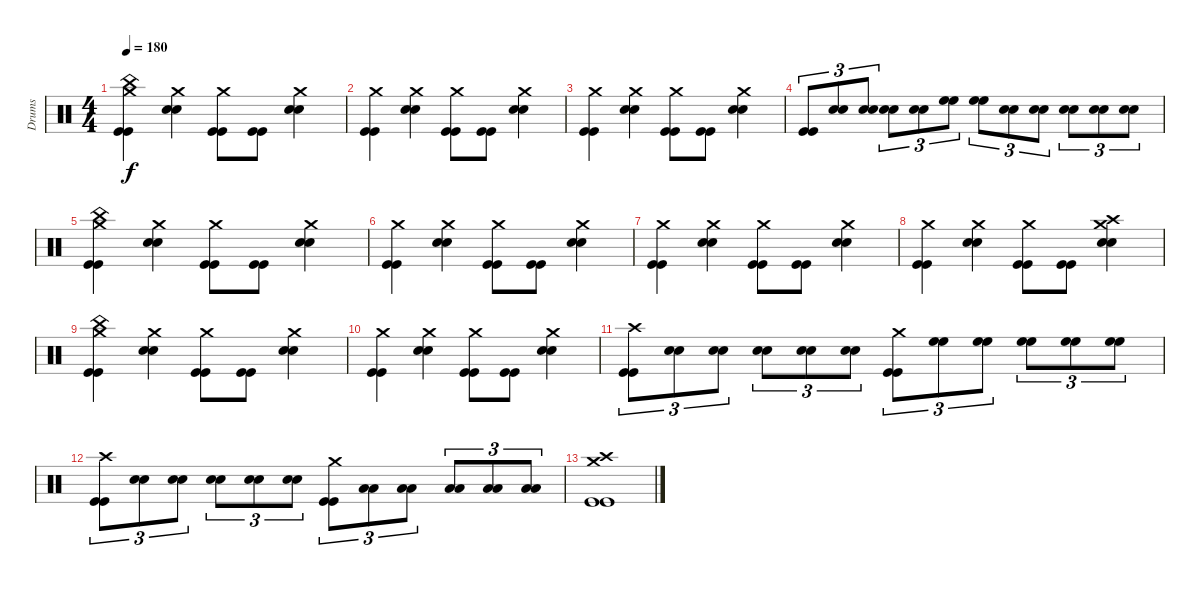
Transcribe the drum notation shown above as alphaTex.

\track ("Drums" "Drums") {instrument percussion}
\staff {score}
\articulation defaults
\ts (4 4)
\tempo 180
\clef neutral
\ks c
("China (hit)" "Crash medium (hit)" "Kick (hit)" "Kick (hit)").4{dy f} ("Crash medium (hit)" "Snare (hit) 2" "Snare (hit) 2").4 ("Crash medium (hit)" "Kick (hit)" "Kick (hit)").8 ("Kick (hit)" "Kick (hit)").8 ("Crash medium (hit)" "Snare (hit) 2" "Snare (hit) 2").4 |
("Crash medium (hit)" "Kick (hit)" "Kick (hit)").4 ("Crash medium (hit)" "Snare (hit) 2" "Snare (hit) 2").4 ("Crash medium (hit)" "Kick (hit)" "Kick (hit)").8 ("Kick (hit)" "Kick (hit)").8 ("Crash medium (hit)" "Snare (hit) 2" "Snare (hit) 2").4 |
("Crash medium (hit)" "Kick (hit)" "Kick (hit)").4 ("Crash medium (hit)" "Snare (hit) 2" "Snare (hit) 2").4 ("Crash medium (hit)" "Kick (hit)" "Kick (hit)").8 ("Kick (hit)" "Kick (hit)").8 ("Crash medium (hit)" "Snare (hit) 2" "Snare (hit) 2").4 |
("Kick (hit)" "Kick (hit)").8{tu (3 2)} ("Snare (hit) 2" "Snare (hit) 2").8{tu (3 2)} ("Snare (hit) 2" "Snare (hit) 2").8{tu (3 2)} ("Snare (hit) 2" "Snare (hit) 2").8{tu (3 2)} ("Snare (hit) 2" "Snare (hit) 2").8{tu (3 2)} ("High Floor Tom (hit)" "High Floor Tom (hit)").8{tu (3 2)} ("High Floor Tom (hit)" "High Floor Tom (hit)").8{tu (3 2)} ("Snare (hit) 2" "Snare (hit) 2").8{tu (3 2)} ("Snare (hit) 2" "Snare (hit) 2").8{tu (3 2)} ("Snare (hit) 2" "Snare (hit) 2").8{tu (3 2)} ("Snare (hit) 2" "Snare (hit) 2").8{tu (3 2)} ("Snare (hit) 2" "Snare (hit) 2").8{tu (3 2)} |
("China (hit)" "Crash medium (hit)" "Kick (hit)" "Kick (hit)").4 ("Crash medium (hit)" "Snare (hit) 2" "Snare (hit) 2").4 ("Crash medium (hit)" "Kick (hit)" "Kick (hit)").8 ("Kick (hit)" "Kick (hit)").8 ("Crash medium (hit)" "Snare (hit) 2" "Snare (hit) 2").4 |
("Crash medium (hit)" "Kick (hit)" "Kick (hit)").4 ("Crash medium (hit)" "Snare (hit) 2" "Snare (hit) 2").4 ("Crash medium (hit)" "Kick (hit)" "Kick (hit)").8 ("Kick (hit)" "Kick (hit)").8 ("Crash medium (hit)" "Snare (hit) 2" "Snare (hit) 2").4 |
("Crash medium (hit)" "Kick (hit)" "Kick (hit)").4 ("Crash medium (hit)" "Snare (hit) 2" "Snare (hit) 2").4 ("Crash medium (hit)" "Kick (hit)" "Kick (hit)").8 ("Kick (hit)" "Kick (hit)").8 ("Crash medium (hit)" "Snare (hit) 2" "Snare (hit) 2").4 |
("Crash medium (hit)" "Kick (hit)" "Kick (hit)").4 ("Crash medium (hit)" "Snare (hit) 2" "Snare (hit) 2").4 ("Crash medium (hit)" "Kick (hit)" "Kick (hit)").8 ("Kick (hit)" "Kick (hit)").8 ("Crash high (hit)" "Crash medium (hit)" "Snare (hit) 2" "Snare (hit) 2").4 |
("China (hit)" "Crash medium (hit)" "Kick (hit)" "Kick (hit)").4 ("Crash medium (hit)" "Snare (hit) 2" "Snare (hit) 2").4 ("Crash medium (hit)" "Kick (hit)" "Kick (hit)").8 ("Kick (hit)" "Kick (hit)").8 ("Crash medium (hit)" "Snare (hit) 2" "Snare (hit) 2").4 |
("Crash medium (hit)" "Kick (hit)" "Kick (hit)").4 ("Crash medium (hit)" "Snare (hit) 2" "Snare (hit) 2").4 ("Crash medium (hit)" "Kick (hit)" "Kick (hit)").8 ("Kick (hit)" "Kick (hit)").8 ("Crash medium (hit)" "Snare (hit) 2" "Snare (hit) 2").4 |
("Crash high (hit)" "Kick (hit)" "Kick (hit)").8{tu (3 2)} ("Snare (hit) 2" "Snare (hit) 2").8{tu (3 2)} ("Snare (hit) 2" "Snare (hit) 2").8{tu (3 2)} ("Snare (hit) 2" "Snare (hit) 2").8{tu (3 2)} ("Snare (hit) 2" "Snare (hit) 2").8{tu (3 2)} ("Snare (hit) 2" "Snare (hit) 2").8{tu (3 2)} ("Crash medium (hit)" "Kick (hit)" "Kick (hit)").8{tu (3 2)} ("High Floor Tom (hit)" "High Floor Tom (hit)").8{tu (3 2)} ("High Floor Tom (hit)" "High Floor Tom (hit)").8{tu (3 2)} ("High Floor Tom (hit)" "High Floor Tom (hit)").8{tu (3 2)} ("High Floor Tom (hit)" "High Floor Tom (hit)").8{tu (3 2)} ("High Floor Tom (hit)" "High Floor Tom (hit)").8{tu (3 2)} |
("Crash high (hit)" "Kick (hit)" "Kick (hit)").8{tu (3 2)} ("Snare (hit) 2" "Snare (hit) 2").8{tu (3 2)} ("Snare (hit) 2" "Snare (hit) 2").8{tu (3 2)} ("Snare (hit) 2" "Snare (hit) 2").8{tu (3 2)} ("Snare (hit) 2" "Snare (hit) 2").8{tu (3 2)} ("Snare (hit) 2" "Snare (hit) 2").8{tu (3 2)} ("Crash medium (hit)" "Kick (hit)" "Kick (hit)").8{tu (3 2)} ("Low Tom (hit)" "Low Tom (hit)").8{tu (3 2)} ("Low Tom (hit)" "Low Tom (hit)").8{tu (3 2)} ("Low Tom (hit)" "Low Tom (hit)").8{tu (3 2)} ("Low Tom (hit)" "Low Tom (hit)").8{tu (3 2)} ("Low Tom (hit)" "Low Tom (hit)").8{tu (3 2)} |
("Crash medium (hit)" "Crash high (hit)" "Kick (hit)" "Kick (hit)").1
